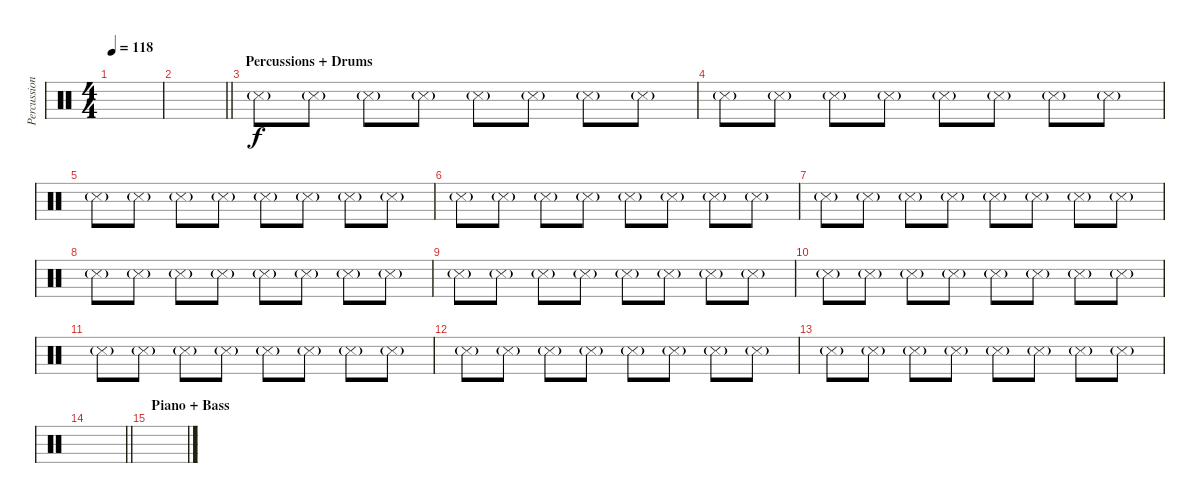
\track ("Percussion (RSE)" "Percussion") {instrument percussion}
\staff {score}
\articulation defaults
\ts (4 4)
\tempo 118
\clef neutral
\ks c
|
\barLineRight lightlight
|
\section ("" "Percussions + Drums")
"Snare (side stick) 3"{g}.8 "Snare (side stick) 3"{g}.8 "Snare (side stick) 3"{g}.8 "Snare (side stick) 3"{g}.8 "Snare (side stick) 3"{g}.8 "Snare (side stick) 3"{g}.8 "Snare (side stick) 3"{g}.8 "Snare (side stick) 3"{g}.8 |
"Snare (side stick) 3"{g}.8 "Snare (side stick) 3"{g}.8 "Snare (side stick) 3"{g}.8 "Snare (side stick) 3"{g}.8 "Snare (side stick) 3"{g}.8 "Snare (side stick) 3"{g}.8 "Snare (side stick) 3"{g}.8 "Snare (side stick) 3"{g}.8 |
"Snare (side stick) 3"{g}.8 "Snare (side stick) 3"{g}.8 "Snare (side stick) 3"{g}.8 "Snare (side stick) 3"{g}.8 "Snare (side stick) 3"{g}.8 "Snare (side stick) 3"{g}.8 "Snare (side stick) 3"{g}.8 "Snare (side stick) 3"{g}.8 |
"Snare (side stick) 3"{g}.8 "Snare (side stick) 3"{g}.8 "Snare (side stick) 3"{g}.8 "Snare (side stick) 3"{g}.8 "Snare (side stick) 3"{g}.8 "Snare (side stick) 3"{g}.8 "Snare (side stick) 3"{g}.8 "Snare (side stick) 3"{g}.8 |
"Snare (side stick) 3"{g}.8 "Snare (side stick) 3"{g}.8 "Snare (side stick) 3"{g}.8 "Snare (side stick) 3"{g}.8 "Snare (side stick) 3"{g}.8 "Snare (side stick) 3"{g}.8 "Snare (side stick) 3"{g}.8 "Snare (side stick) 3"{g}.8 |
"Snare (side stick) 3"{g}.8 "Snare (side stick) 3"{g}.8 "Snare (side stick) 3"{g}.8 "Snare (side stick) 3"{g}.8 "Snare (side stick) 3"{g}.8 "Snare (side stick) 3"{g}.8 "Snare (side stick) 3"{g}.8 "Snare (side stick) 3"{g}.8 |
"Snare (side stick) 3"{g}.8 "Snare (side stick) 3"{g}.8 "Snare (side stick) 3"{g}.8 "Snare (side stick) 3"{g}.8 "Snare (side stick) 3"{g}.8 "Snare (side stick) 3"{g}.8 "Snare (side stick) 3"{g}.8 "Snare (side stick) 3"{g}.8 |
"Snare (side stick) 3"{g}.8 "Snare (side stick) 3"{g}.8 "Snare (side stick) 3"{g}.8 "Snare (side stick) 3"{g}.8 "Snare (side stick) 3"{g}.8 "Snare (side stick) 3"{g}.8 "Snare (side stick) 3"{g}.8 "Snare (side stick) 3"{g}.8 |
"Snare (side stick) 3"{g}.8 "Snare (side stick) 3"{g}.8 "Snare (side stick) 3"{g}.8 "Snare (side stick) 3"{g}.8 "Snare (side stick) 3"{g}.8 "Snare (side stick) 3"{g}.8 "Snare (side stick) 3"{g}.8 "Snare (side stick) 3"{g}.8 |
"Snare (side stick) 3"{g}.8 "Snare (side stick) 3"{g}.8 "Snare (side stick) 3"{g}.8 "Snare (side stick) 3"{g}.8 "Snare (side stick) 3"{g}.8 "Snare (side stick) 3"{g}.8 "Snare (side stick) 3"{g}.8 "Snare (side stick) 3"{g}.8 |
"Snare (side stick) 3"{g}.8 "Snare (side stick) 3"{g}.8 "Snare (side stick) 3"{g}.8 "Snare (side stick) 3"{g}.8 "Snare (side stick) 3"{g}.8 "Snare (side stick) 3"{g}.8 "Snare (side stick) 3"{g}.8 "Snare (side stick) 3"{g}.8 |
\barLineRight lightlight
|
\section ("" "Piano + Bass")
